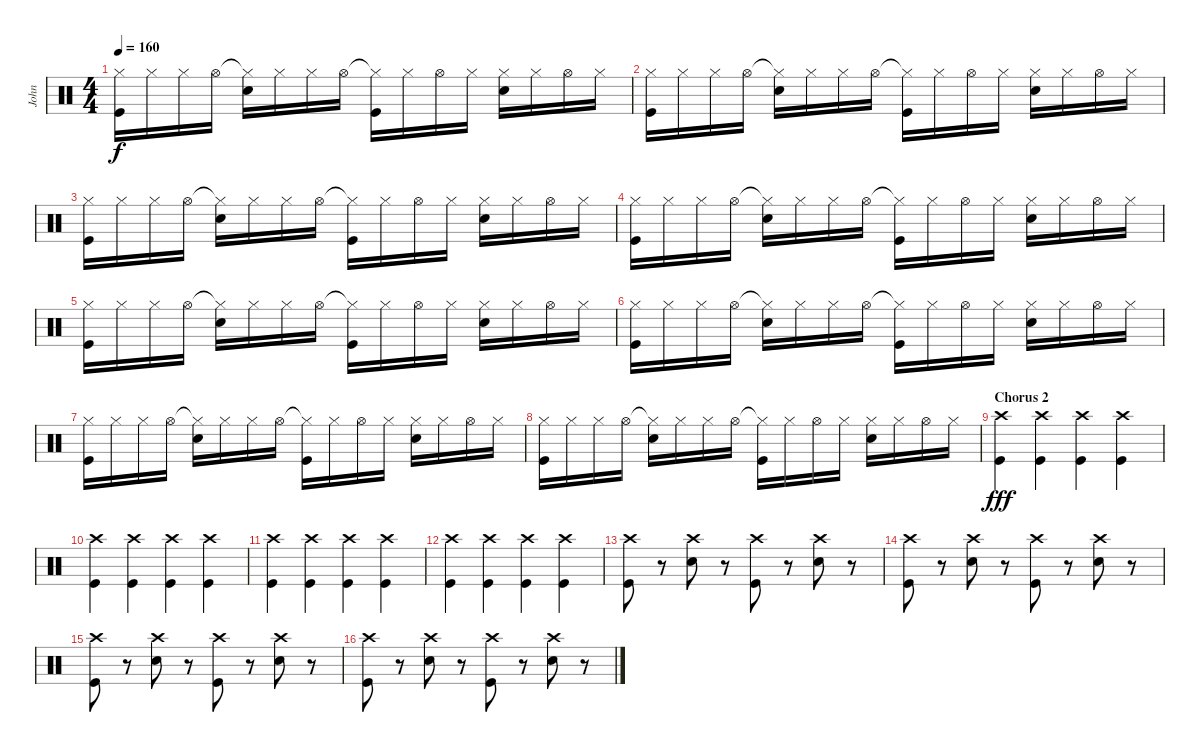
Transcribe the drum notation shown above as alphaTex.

\track ("John" "John") {instrument percussion}
\staff {score}
\articulation defaults
\ts (4 4)
\tempo 160
\clef neutral
\ks c
("Hi-Hat (closed)" "Kick (hit)").16{dy f} "Hi-Hat (closed)".16 "Hi-Hat (closed)".16 "Hi-Hat (open)".16 ("Hi-Hat (closed)"{t} "Electric Snare (hit)").16 "Hi-Hat (closed)".16 "Hi-Hat (closed)".16 "Hi-Hat (open)".16 ("Hi-Hat (closed)"{t} "Kick (hit)").16 "Hi-Hat (closed)".16 "Hi-Hat (open)".16 "Hi-Hat (closed)".16 ("Hi-Hat (closed)" "Electric Snare (hit)").16 "Hi-Hat (closed)".16 "Hi-Hat (open)".16 "Hi-Hat (closed)".16 |
("Hi-Hat (closed)" "Kick (hit)").16 "Hi-Hat (closed)".16 "Hi-Hat (closed)".16 "Hi-Hat (open)".16 ("Hi-Hat (closed)"{t} "Electric Snare (hit)").16 "Hi-Hat (closed)".16 "Hi-Hat (closed)".16 "Hi-Hat (open)".16 ("Hi-Hat (closed)"{t} "Kick (hit)").16 "Hi-Hat (closed)".16 "Hi-Hat (open)".16 "Hi-Hat (closed)".16 ("Hi-Hat (closed)" "Electric Snare (hit)").16 "Hi-Hat (closed)".16 "Hi-Hat (open)".16 "Hi-Hat (closed)".16 |
("Hi-Hat (closed)" "Kick (hit)").16 "Hi-Hat (closed)".16 "Hi-Hat (closed)".16 "Hi-Hat (open)".16 ("Hi-Hat (closed)"{t} "Electric Snare (hit)").16 "Hi-Hat (closed)".16 "Hi-Hat (closed)".16 "Hi-Hat (open)".16 ("Hi-Hat (closed)"{t} "Kick (hit)").16 "Hi-Hat (closed)".16 "Hi-Hat (open)".16 "Hi-Hat (closed)".16 ("Hi-Hat (closed)" "Electric Snare (hit)").16 "Hi-Hat (closed)".16 "Hi-Hat (open)".16 "Hi-Hat (closed)".16 |
("Hi-Hat (closed)" "Kick (hit)").16 "Hi-Hat (closed)".16 "Hi-Hat (closed)".16 "Hi-Hat (open)".16 ("Hi-Hat (closed)"{t} "Electric Snare (hit)").16 "Hi-Hat (closed)".16 "Hi-Hat (closed)".16 "Hi-Hat (open)".16 ("Hi-Hat (closed)"{t} "Kick (hit)").16 "Hi-Hat (closed)".16 "Hi-Hat (open)".16 "Hi-Hat (closed)".16 ("Hi-Hat (closed)" "Electric Snare (hit)").16 "Hi-Hat (closed)".16 "Hi-Hat (open)".16 "Hi-Hat (closed)".16 |
("Hi-Hat (closed)" "Kick (hit)").16 "Hi-Hat (closed)".16 "Hi-Hat (closed)".16 "Hi-Hat (open)".16 ("Hi-Hat (closed)"{t} "Electric Snare (hit)").16 "Hi-Hat (closed)".16 "Hi-Hat (closed)".16 "Hi-Hat (open)".16 ("Hi-Hat (closed)"{t} "Kick (hit)").16 "Hi-Hat (closed)".16 "Hi-Hat (open)".16 "Hi-Hat (closed)".16 ("Hi-Hat (closed)" "Electric Snare (hit)").16 "Hi-Hat (closed)".16 "Hi-Hat (open)".16 "Hi-Hat (closed)".16 |
("Hi-Hat (closed)" "Kick (hit)").16 "Hi-Hat (closed)".16 "Hi-Hat (closed)".16 "Hi-Hat (open)".16 ("Hi-Hat (closed)"{t} "Electric Snare (hit)").16 "Hi-Hat (closed)".16 "Hi-Hat (closed)".16 "Hi-Hat (open)".16 ("Hi-Hat (closed)"{t} "Kick (hit)").16 "Hi-Hat (closed)".16 "Hi-Hat (open)".16 "Hi-Hat (closed)".16 ("Hi-Hat (closed)" "Electric Snare (hit)").16 "Hi-Hat (closed)".16 "Hi-Hat (open)".16 "Hi-Hat (closed)".16 |
("Hi-Hat (closed)" "Kick (hit)").16 "Hi-Hat (closed)".16 "Hi-Hat (closed)".16 "Hi-Hat (open)".16 ("Hi-Hat (closed)"{t} "Electric Snare (hit)").16 "Hi-Hat (closed)".16 "Hi-Hat (closed)".16 "Hi-Hat (open)".16 ("Hi-Hat (closed)"{t} "Kick (hit)").16 "Hi-Hat (closed)".16 "Hi-Hat (open)".16 "Hi-Hat (closed)".16 ("Hi-Hat (closed)" "Electric Snare (hit)").16 "Hi-Hat (closed)".16 "Hi-Hat (open)".16 "Hi-Hat (closed)".16 |
("Hi-Hat (closed)" "Kick (hit)").16 "Hi-Hat (closed)".16 "Hi-Hat (closed)".16 "Hi-Hat (open)".16 ("Hi-Hat (closed)"{t} "Electric Snare (hit)").16 "Hi-Hat (closed)".16 "Hi-Hat (closed)".16 "Hi-Hat (open)".16 ("Hi-Hat (closed)"{t} "Kick (hit)").16 "Hi-Hat (closed)".16 "Hi-Hat (open)".16 "Hi-Hat (closed)".16 ("Hi-Hat (closed)" "Electric Snare (hit)").16 "Hi-Hat (closed)".16 "Hi-Hat (open)".16 "Hi-Hat (closed)".16 |
\section ("" "Chorus 2")
("Crash high (hit)" "Kick (hit)").4{dy fff} ("Crash high (hit)" "Kick (hit)").4 ("Crash high (hit)" "Kick (hit)").4 ("Crash high (hit)" "Kick (hit)").4 |
("Crash high (hit)" "Kick (hit)").4 ("Crash high (hit)" "Kick (hit)").4 ("Crash high (hit)" "Kick (hit)").4 ("Crash high (hit)" "Kick (hit)").4 |
("Crash high (hit)" "Kick (hit)").4 ("Crash high (hit)" "Kick (hit)").4 ("Crash high (hit)" "Kick (hit)").4 ("Crash high (hit)" "Kick (hit)").4 |
("Crash high (hit)" "Kick (hit)").4 ("Crash high (hit)" "Kick (hit)").4 ("Crash high (hit)" "Kick (hit)").4 ("Crash high (hit)" "Kick (hit)").4 |
("Crash high (hit)" "Kick (hit)").8 r.8 ("Crash high (hit)" "Electric Snare (hit)").8 r.8 ("Crash high (hit)" "Kick (hit)").8 r.8 ("Crash high (hit)" "Electric Snare (hit)").8 r.8 |
("Crash high (hit)" "Kick (hit)").8 r.8 ("Crash high (hit)" "Electric Snare (hit)").8 r.8 ("Crash high (hit)" "Kick (hit)").8 r.8 ("Crash high (hit)" "Electric Snare (hit)").8 r.8 |
("Crash high (hit)" "Kick (hit)").8 r.8 ("Crash high (hit)" "Electric Snare (hit)").8 r.8 ("Crash high (hit)" "Kick (hit)").8 r.8 ("Crash high (hit)" "Electric Snare (hit)").8 r.8 |
("Crash high (hit)" "Kick (hit)").8 r.8 ("Crash high (hit)" "Electric Snare (hit)").8 r.8 ("Crash high (hit)" "Kick (hit)").8 r.8 ("Crash high (hit)" "Electric Snare (hit)").8 r.8
